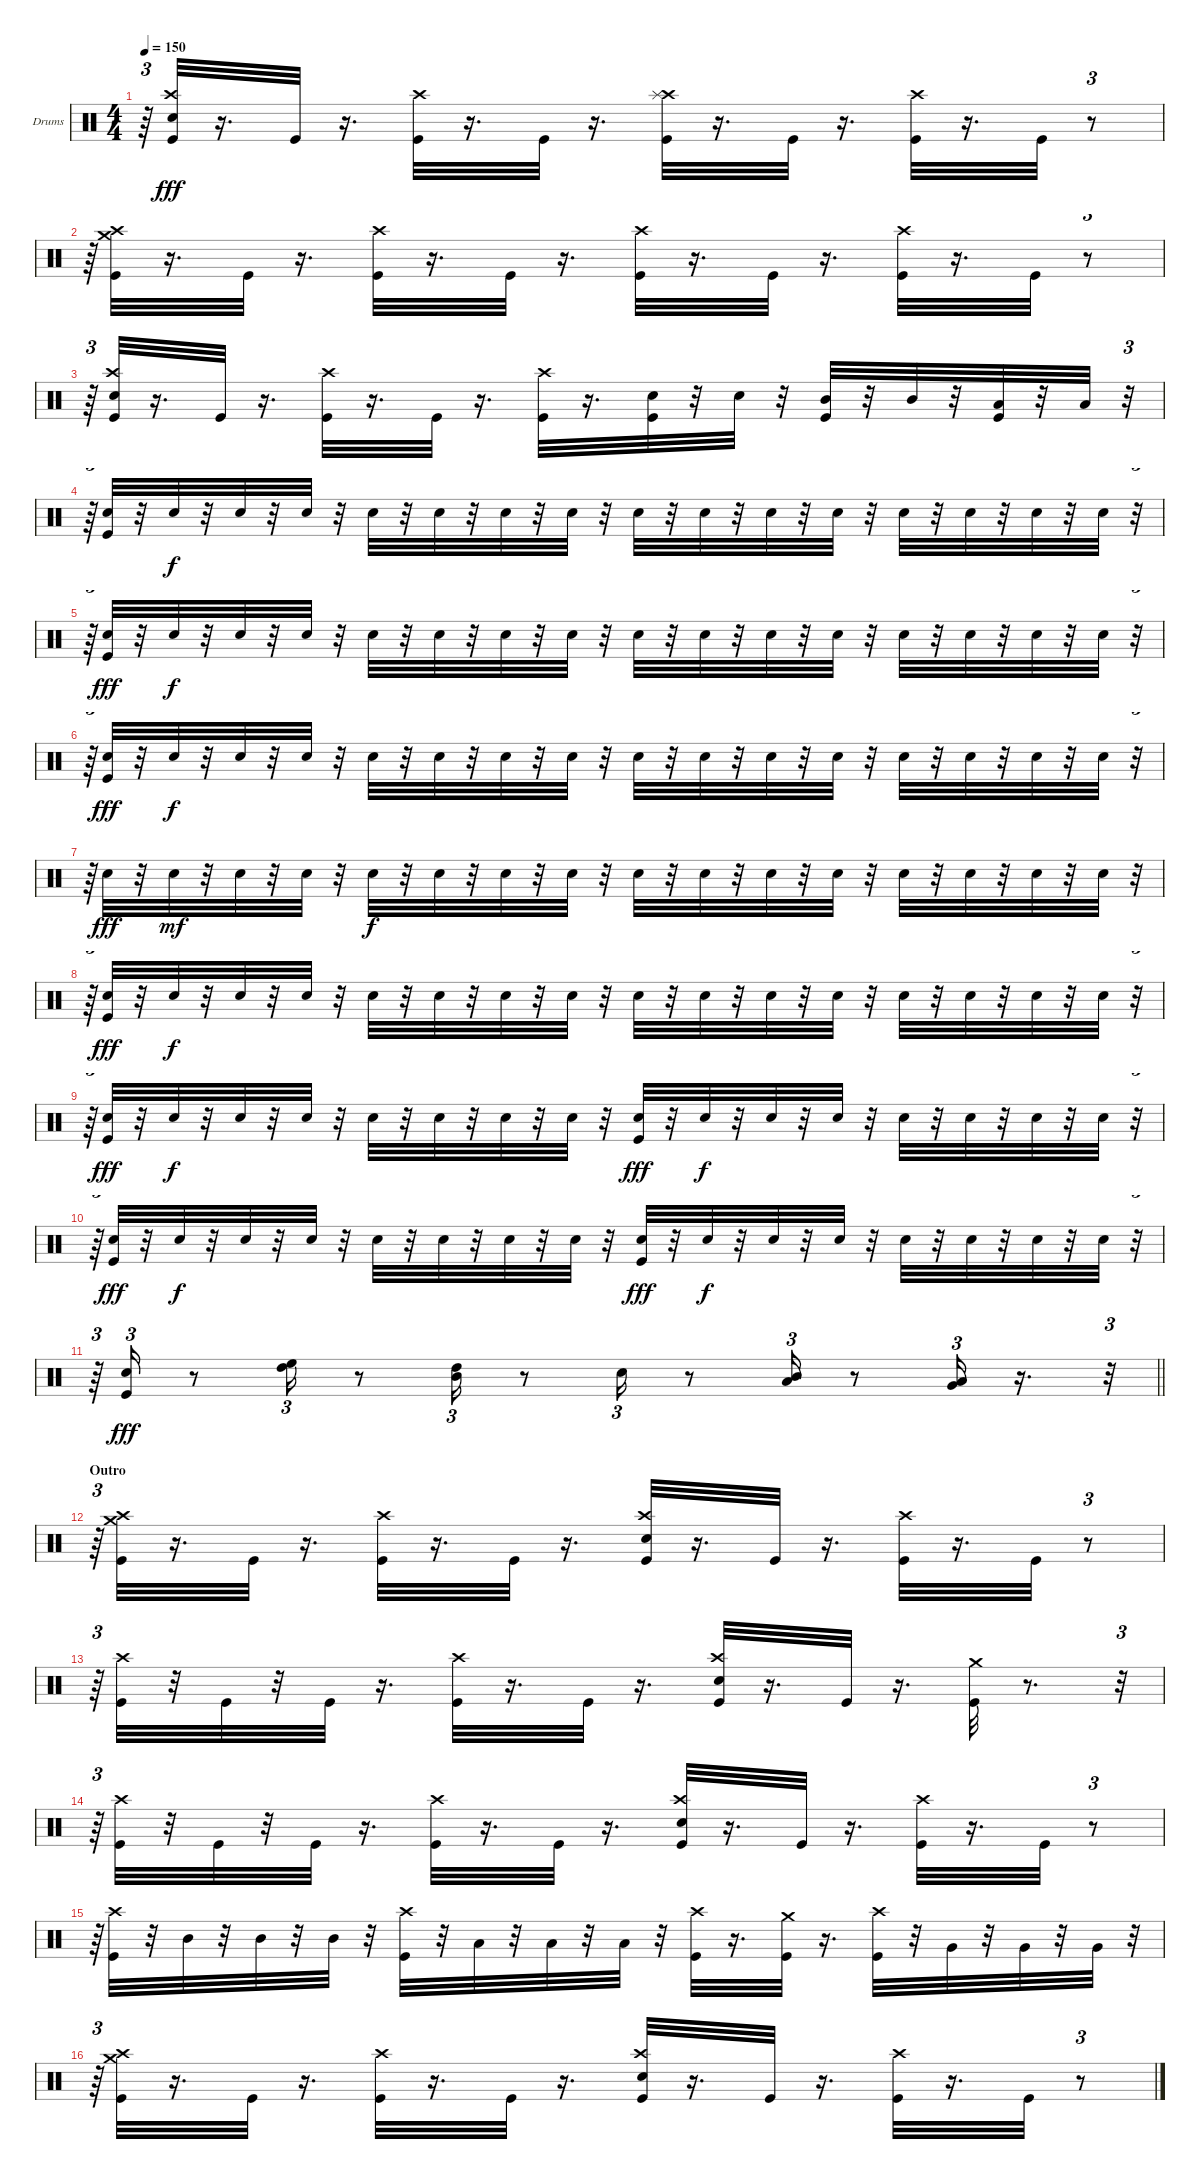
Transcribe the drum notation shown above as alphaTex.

\bracketExtendMode groupsimilarinstruments
\firstSystemTrackNameOrientation horizontal
\otherSystemsTrackNameOrientation horizontal
\track ("Dave McClain" "Drums") {mute instrument percussion}
\staff {score}
\articulation defaults
\ts (4 4)
\tempo 150
\clef neutral
\ks c
r.64{tu (3 2) dy fff} ("Kick (hit)" "Crash high (hit)" "Snare (hit) 2").32 r.16{d} "Kick (hit)".32 r.16{d} ("Crash high (hit)" "Kick (hit)").32 r.16{d} "Kick (hit)".32 r.16{d} ("Crash high (hit)" "Kick (hit)" "Splash (hit)").32 r.16{d} "Kick (hit)".32 r.16{d} ("Crash high (hit)" "Kick (hit)").32 r.16{d} "Kick (hit)".32 r.8{tu (3 2)} |
r.64{tu (3 2)} ("Crash high (hit)" "Crash medium (hit)" "Kick (hit)").32 r.16{d} "Kick (hit)".32 r.16{d} ("Crash high (hit)" "Kick (hit)").32 r.16{d} "Kick (hit)".32 r.16{d} ("Kick (hit)" "Crash high (hit)").32 r.16{d} "Kick (hit)".32 r.16{d} ("Crash high (hit)" "Kick (hit)").32 r.16{d} "Kick (hit)".32 r.8{tu (3 2)} |
r.64{tu (3 2)} ("Kick (hit)" "Crash high (hit)" "Snare (hit) 2").32 r.16{d} "Kick (hit)".32 r.16{d} ("Crash high (hit)" "Kick (hit)").32 r.16{d} "Kick (hit)".32 r.16{d} ("Kick (hit)" "Crash high (hit)").32 r.16{d} ("Snare (hit) 2" "Kick (hit)").32 r.32 "Snare (hit) 2".32 r.32 ("Mid Tom (hit)" "Kick (hit)").32 r.32 "Mid Tom (hit)".32 r.32 ("Low Tom (hit)" "Kick (hit)").32 r.32 "Low Tom (hit)".32 r.32{tu (3 2)} |
r.64{tu (3 2)} ("Kick (hit)" "Snare (hit) 2").32 r.32 "Snare (hit) 2".32{dy f} r.32 "Snare (hit) 2".32 r.32 "Snare (hit) 2".32 r.32 "Snare (hit) 2".32 r.32 "Snare (hit) 2".32 r.32 "Snare (hit) 2".32 r.32 "Snare (hit) 2".32 r.32 "Snare (hit) 2".32 r.32 "Snare (hit) 2".32 r.32 "Snare (hit) 2".32 r.32 "Snare (hit) 2".32 r.32 "Snare (hit) 2".32 r.32 "Snare (hit) 2".32 r.32 "Snare (hit) 2".32 r.32 "Snare (hit) 2".32 r.32{tu (3 2)} |
r.64{tu (3 2)} ("Kick (hit)" "Snare (hit) 2").32{dy fff} r.32 "Snare (hit) 2".32{dy f} r.32 "Snare (hit) 2".32 r.32 "Snare (hit) 2".32 r.32 "Snare (hit) 2".32 r.32 "Snare (hit) 2".32 r.32 "Snare (hit) 2".32 r.32 "Snare (hit) 2".32 r.32 "Snare (hit) 2".32 r.32 "Snare (hit) 2".32 r.32 "Snare (hit) 2".32 r.32 "Snare (hit) 2".32 r.32 "Snare (hit) 2".32 r.32 "Snare (hit) 2".32 r.32 "Snare (hit) 2".32 r.32 "Snare (hit) 2".32 r.32{tu (3 2)} |
r.64{tu (3 2)} ("Kick (hit)" "Snare (hit) 2").32{dy fff} r.32 "Snare (hit) 2".32{dy f} r.32 "Snare (hit) 2".32 r.32 "Snare (hit) 2".32 r.32 "Snare (hit) 2".32 r.32 "Snare (hit) 2".32 r.32 "Snare (hit) 2".32 r.32 "Snare (hit) 2".32 r.32 "Snare (hit) 2".32 r.32 "Snare (hit) 2".32 r.32 "Snare (hit) 2".32 r.32 "Snare (hit) 2".32 r.32 "Snare (hit) 2".32 r.32 "Snare (hit) 2".32 r.32 "Snare (hit) 2".32 r.32 "Snare (hit) 2".32 r.32{tu (3 2)} |
r.64{tu (3 2)} "Snare (hit) 2".32{dy fff} r.32 "Snare (hit) 2".32{dy mf} r.32 "Snare (hit) 2".32 r.32 "Snare (hit) 2".32 r.32 "Snare (hit) 2".32{dy f} r.32 "Snare (hit) 2".32 r.32 "Snare (hit) 2".32 r.32 "Snare (hit) 2".32 r.32 "Snare (hit) 2".32 r.32 "Snare (hit) 2".32 r.32 "Snare (hit) 2".32 r.32 "Snare (hit) 2".32 r.32 "Snare (hit) 2".32 r.32 "Snare (hit) 2".32 r.32 "Snare (hit) 2".32 r.32 "Snare (hit) 2".32 r.32{tu (3 2)} |
r.64{tu (3 2)} ("Kick (hit)" "Snare (hit) 2").32{dy fff} r.32 "Snare (hit) 2".32{dy f} r.32 "Snare (hit) 2".32 r.32 "Snare (hit) 2".32 r.32 "Snare (hit) 2".32 r.32 "Snare (hit) 2".32 r.32 "Snare (hit) 2".32 r.32 "Snare (hit) 2".32 r.32 "Snare (hit) 2".32 r.32 "Snare (hit) 2".32 r.32 "Snare (hit) 2".32 r.32 "Snare (hit) 2".32 r.32 "Snare (hit) 2".32 r.32 "Snare (hit) 2".32 r.32 "Snare (hit) 2".32 r.32 "Snare (hit) 2".32 r.32{tu (3 2)} |
r.64{tu (3 2)} ("Kick (hit)" "Snare (hit) 2").32{dy fff} r.32 "Snare (hit) 2".32{dy f} r.32 "Snare (hit) 2".32 r.32 "Snare (hit) 2".32 r.32 "Snare (hit) 2".32 r.32 "Snare (hit) 2".32 r.32 "Snare (hit) 2".32 r.32 "Snare (hit) 2".32 r.32 ("Kick (hit)" "Snare (hit) 2").32{dy fff} r.32 "Snare (hit) 2".32{dy f} r.32 "Snare (hit) 2".32 r.32 "Snare (hit) 2".32 r.32 "Snare (hit) 2".32 r.32 "Snare (hit) 2".32 r.32 "Snare (hit) 2".32 r.32 "Snare (hit) 2".32 r.32{tu (3 2)} |
r.64{tu (3 2)} ("Kick (hit)" "Snare (hit) 2").32{dy fff} r.32 "Snare (hit) 2".32{dy f} r.32 "Snare (hit) 2".32 r.32 "Snare (hit) 2".32 r.32 "Snare (hit) 2".32 r.32 "Snare (hit) 2".32 r.32 "Snare (hit) 2".32 r.32 "Snare (hit) 2".32 r.32 ("Kick (hit)" "Snare (hit) 2").32{dy fff} r.32 "Snare (hit) 2".32{dy f} r.32 "Snare (hit) 2".32 r.32 "Snare (hit) 2".32 r.32 "Snare (hit) 2".32 r.32 "Snare (hit) 2".32 r.32 "Snare (hit) 2".32 r.32 "Snare (hit) 2".32 r.32{tu (3 2)} |
\barLineRight lightlight
r.64{tu (3 2)} ("Kick (hit)" "Snare (hit) 2").16{tu (3 2) dy fff} r.8 ("High Tom (hit)" "High Floor Tom (hit)").16{tu (3 2)} r.8 ("Mid Tom (hit)" "High Tom (hit)").16{tu (3 2)} r.8 "Snare (hit) 2".16{tu (3 2)} r.8 ("Low Tom (hit)" "Mid Tom (hit)").16{tu (3 2)} r.8 ("Low Tom (hit)" "Very Low Tom (hit)").16{tu (3 2)} r.16{d} r.32{tu (3 2)} |
\section ("" "Outro")
r.64{tu (3 2)} ("Crash high (hit)" "Crash medium (hit)" "Kick (hit)").32 r.16{d} "Kick (hit)".32 r.16{d} ("Crash high (hit)" "Kick (hit)").32 r.16{d} "Kick (hit)".32 r.16{d} ("Snare (hit) 2" "Crash high (hit)" "Kick (hit)").32 r.16{d} "Kick (hit)".32 r.16{d} ("Crash high (hit)" "Kick (hit)").32 r.16{d} "Kick (hit)".32 r.8{tu (3 2)} |
r.64{tu (3 2)} ("Crash high (hit)" "Kick (hit)").32 r.32 "Kick (hit)".32 r.32 "Kick (hit)".32 r.16{d} ("Crash high (hit)" "Kick (hit)").32 r.16{d} "Kick (hit)".32 r.16{d} ("Snare (hit) 2" "Crash high (hit)" "Kick (hit)").32 r.16{d} "Kick (hit)".32 r.16{d} ("Crash medium (hit)" "Kick (hit)").32 r.8{d} r.32{tu (3 2)} |
r.64{tu (3 2)} ("Crash high (hit)" "Kick (hit)").32 r.32 "Kick (hit)".32 r.32 "Kick (hit)".32 r.16{d} ("Kick (hit)" "Crash high (hit)").32 r.16{d} "Kick (hit)".32 r.16{d} ("Snare (hit) 2" "Kick (hit)" "Crash high (hit)").32 r.16{d} "Kick (hit)".32 r.16{d} ("Crash high (hit)" "Kick (hit)").32 r.16{d} "Kick (hit)".32 r.8{tu (3 2)} |
r.64{tu (3 2)} ("Kick (hit)" "Crash high (hit)").32 r.32 "Mid Tom (hit)".32 r.32 "Mid Tom (hit)".32 r.32 "Mid Tom (hit)".32 r.32 ("Kick (hit)" "Crash high (hit)").32 r.32 "Low Tom (hit)".32 r.32 "Low Tom (hit)".32 r.32 "Low Tom (hit)".32 r.32 ("Kick (hit)" "Crash high (hit)").32 r.16{d} ("Kick (hit)" "Crash medium (hit)").32 r.16{d} ("Kick (hit)" "Crash high (hit)").32 r.32 "Very Low Tom (hit)".32 r.32 "Very Low Tom (hit)".32 r.32 "Very Low Tom (hit)".32 r.32{tu (3 2)} |
r.64{tu (3 2)} ("Crash high (hit)" "Crash medium (hit)" "Kick (hit)").32 r.16{d} "Kick (hit)".32 r.16{d} ("Crash high (hit)" "Kick (hit)").32 r.16{d} "Kick (hit)".32 r.16{d} ("Snare (hit) 2" "Crash high (hit)" "Kick (hit)").32 r.16{d} "Kick (hit)".32 r.16{d} ("Crash high (hit)" "Kick (hit)").32 r.16{d} "Kick (hit)".32 r.8{tu (3 2)}
